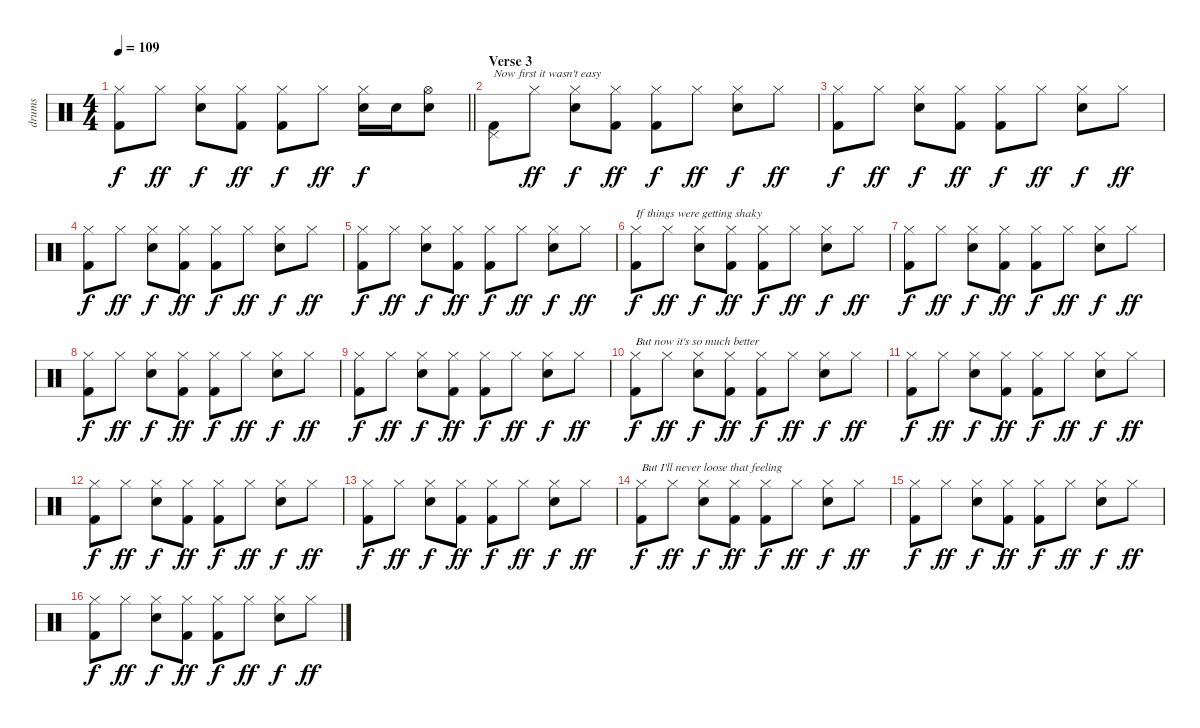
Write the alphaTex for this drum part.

\track ("drums" "drums") {instrument percussion}
\staff {score}
\articulation defaults
\ts (4 4)
\tempo 109
\clef neutral
\barLineRight lightlight
\ks aminor
("Hi-Hat (closed)" "Kick (hit) 2").8{dy f} "Hi-Hat (closed)".8{dy ff} ("Hi-Hat (closed)" "Snare (hit) 2").8{dy f} ("Hi-Hat (closed)" "Kick (hit) 2").8{dy ff} ("Hi-Hat (closed)" "Kick (hit) 2").8{dy f} "Hi-Hat (closed)".8{dy ff} ("Hi-Hat (closed)" "Snare (hit) 2").16{dy f} "Snare (hit) 2".16 ("Hi-Hat (open)" "Snare (hit) 2").8 |
\section ("" "Verse 3")
("Pedal Hi-Hat (hit)" "Kick (hit) 2").8{txt "Now first it wasn't easy"} "Hi-Hat (closed)".8{dy ff} ("Hi-Hat (closed)" "Snare (hit) 2").8{dy f} ("Hi-Hat (closed)" "Kick (hit) 2").8{dy ff} ("Hi-Hat (closed)" "Kick (hit) 2").8{dy f} "Hi-Hat (closed)".8{dy ff} ("Hi-Hat (closed)" "Snare (hit) 2").8{dy f} "Hi-Hat (closed)".8{dy ff} |
("Hi-Hat (closed)" "Kick (hit) 2").8{dy f} "Hi-Hat (closed)".8{dy ff} ("Hi-Hat (closed)" "Snare (hit) 2").8{dy f} ("Hi-Hat (closed)" "Kick (hit) 2").8{dy ff} ("Hi-Hat (closed)" "Kick (hit) 2").8{dy f} "Hi-Hat (closed)".8{dy ff} ("Hi-Hat (closed)" "Snare (hit) 2").8{dy f} "Hi-Hat (closed)".8{dy ff} |
("Hi-Hat (closed)" "Kick (hit) 2").8{dy f} "Hi-Hat (closed)".8{dy ff} ("Hi-Hat (closed)" "Snare (hit) 2").8{dy f} ("Hi-Hat (closed)" "Kick (hit) 2").8{dy ff} ("Hi-Hat (closed)" "Kick (hit) 2").8{dy f} "Hi-Hat (closed)".8{dy ff} ("Hi-Hat (closed)" "Snare (hit) 2").8{dy f} "Hi-Hat (closed)".8{dy ff} |
("Hi-Hat (closed)" "Kick (hit) 2").8{dy f} "Hi-Hat (closed)".8{dy ff} ("Hi-Hat (closed)" "Snare (hit) 2").8{dy f} ("Hi-Hat (closed)" "Kick (hit) 2").8{dy ff} ("Hi-Hat (closed)" "Kick (hit) 2").8{dy f} "Hi-Hat (closed)".8{dy ff} ("Hi-Hat (closed)" "Snare (hit) 2").8{dy f} "Hi-Hat (closed)".8{dy ff} |
("Hi-Hat (closed)" "Kick (hit) 2").8{txt "If things were getting shaky" dy f} "Hi-Hat (closed)".8{dy ff} ("Hi-Hat (closed)" "Snare (hit) 2").8{dy f} ("Hi-Hat (closed)" "Kick (hit) 2").8{dy ff} ("Hi-Hat (closed)" "Kick (hit) 2").8{dy f} "Hi-Hat (closed)".8{dy ff} ("Hi-Hat (closed)" "Snare (hit) 2").8{dy f} "Hi-Hat (closed)".8{dy ff} |
("Hi-Hat (closed)" "Kick (hit) 2").8{dy f} "Hi-Hat (closed)".8{dy ff} ("Hi-Hat (closed)" "Snare (hit) 2").8{dy f} ("Hi-Hat (closed)" "Kick (hit) 2").8{dy ff} ("Hi-Hat (closed)" "Kick (hit) 2").8{dy f} "Hi-Hat (closed)".8{dy ff} ("Hi-Hat (closed)" "Snare (hit) 2").8{dy f} "Hi-Hat (closed)".8{dy ff} |
("Hi-Hat (closed)" "Kick (hit) 2").8{dy f} "Hi-Hat (closed)".8{dy ff} ("Hi-Hat (closed)" "Snare (hit) 2").8{dy f} ("Hi-Hat (closed)" "Kick (hit) 2").8{dy ff} ("Hi-Hat (closed)" "Kick (hit) 2").8{dy f} "Hi-Hat (closed)".8{dy ff} ("Hi-Hat (closed)" "Snare (hit) 2").8{dy f} "Hi-Hat (closed)".8{dy ff} |
("Hi-Hat (closed)" "Kick (hit) 2").8{dy f} "Hi-Hat (closed)".8{dy ff} ("Hi-Hat (closed)" "Snare (hit) 2").8{dy f} ("Hi-Hat (closed)" "Kick (hit) 2").8{dy ff} ("Hi-Hat (closed)" "Kick (hit) 2").8{dy f} "Hi-Hat (closed)".8{dy ff} ("Hi-Hat (closed)" "Snare (hit) 2").8{dy f} "Hi-Hat (closed)".8{dy ff} |
("Hi-Hat (closed)" "Kick (hit) 2").8{txt "But now it's so much better" dy f} "Hi-Hat (closed)".8{dy ff} ("Hi-Hat (closed)" "Snare (hit) 2").8{dy f} ("Hi-Hat (closed)" "Kick (hit) 2").8{dy ff} ("Hi-Hat (closed)" "Kick (hit) 2").8{dy f} "Hi-Hat (closed)".8{dy ff} ("Hi-Hat (closed)" "Snare (hit) 2").8{dy f} "Hi-Hat (closed)".8{dy ff} |
("Hi-Hat (closed)" "Kick (hit) 2").8{dy f} "Hi-Hat (closed)".8{dy ff} ("Hi-Hat (closed)" "Snare (hit) 2").8{dy f} ("Hi-Hat (closed)" "Kick (hit) 2").8{dy ff} ("Hi-Hat (closed)" "Kick (hit) 2").8{dy f} "Hi-Hat (closed)".8{dy ff} ("Hi-Hat (closed)" "Snare (hit) 2").8{dy f} "Hi-Hat (closed)".8{dy ff} |
("Hi-Hat (closed)" "Kick (hit) 2").8{dy f} "Hi-Hat (closed)".8{dy ff} ("Hi-Hat (closed)" "Snare (hit) 2").8{dy f} ("Hi-Hat (closed)" "Kick (hit) 2").8{dy ff} ("Hi-Hat (closed)" "Kick (hit) 2").8{dy f} "Hi-Hat (closed)".8{dy ff} ("Hi-Hat (closed)" "Snare (hit) 2").8{dy f} "Hi-Hat (closed)".8{dy ff} |
("Hi-Hat (closed)" "Kick (hit) 2").8{dy f} "Hi-Hat (closed)".8{dy ff} ("Hi-Hat (closed)" "Snare (hit) 2").8{dy f} ("Hi-Hat (closed)" "Kick (hit) 2").8{dy ff} ("Hi-Hat (closed)" "Kick (hit) 2").8{dy f} "Hi-Hat (closed)".8{dy ff} ("Hi-Hat (closed)" "Snare (hit) 2").8{dy f} "Hi-Hat (closed)".8{dy ff} |
("Hi-Hat (closed)" "Kick (hit) 2").8{txt "But I'll never loose that feeling" dy f} "Hi-Hat (closed)".8{dy ff} ("Hi-Hat (closed)" "Snare (hit) 2").8{dy f} ("Hi-Hat (closed)" "Kick (hit) 2").8{dy ff} ("Hi-Hat (closed)" "Kick (hit) 2").8{dy f} "Hi-Hat (closed)".8{dy ff} ("Hi-Hat (closed)" "Snare (hit) 2").8{dy f} "Hi-Hat (closed)".8{dy ff} |
("Hi-Hat (closed)" "Kick (hit) 2").8{dy f} "Hi-Hat (closed)".8{dy ff} ("Hi-Hat (closed)" "Snare (hit) 2").8{dy f} ("Hi-Hat (closed)" "Kick (hit) 2").8{dy ff} ("Hi-Hat (closed)" "Kick (hit) 2").8{dy f} "Hi-Hat (closed)".8{dy ff} ("Hi-Hat (closed)" "Snare (hit) 2").8{dy f} "Hi-Hat (closed)".8{dy ff} |
("Hi-Hat (closed)" "Kick (hit) 2").8{dy f} "Hi-Hat (closed)".8{dy ff} ("Hi-Hat (closed)" "Snare (hit) 2").8{dy f} ("Hi-Hat (closed)" "Kick (hit) 2").8{dy ff} ("Hi-Hat (closed)" "Kick (hit) 2").8{dy f} "Hi-Hat (closed)".8{dy ff} ("Hi-Hat (closed)" "Snare (hit) 2").8{dy f} "Hi-Hat (closed)".8{dy ff}
